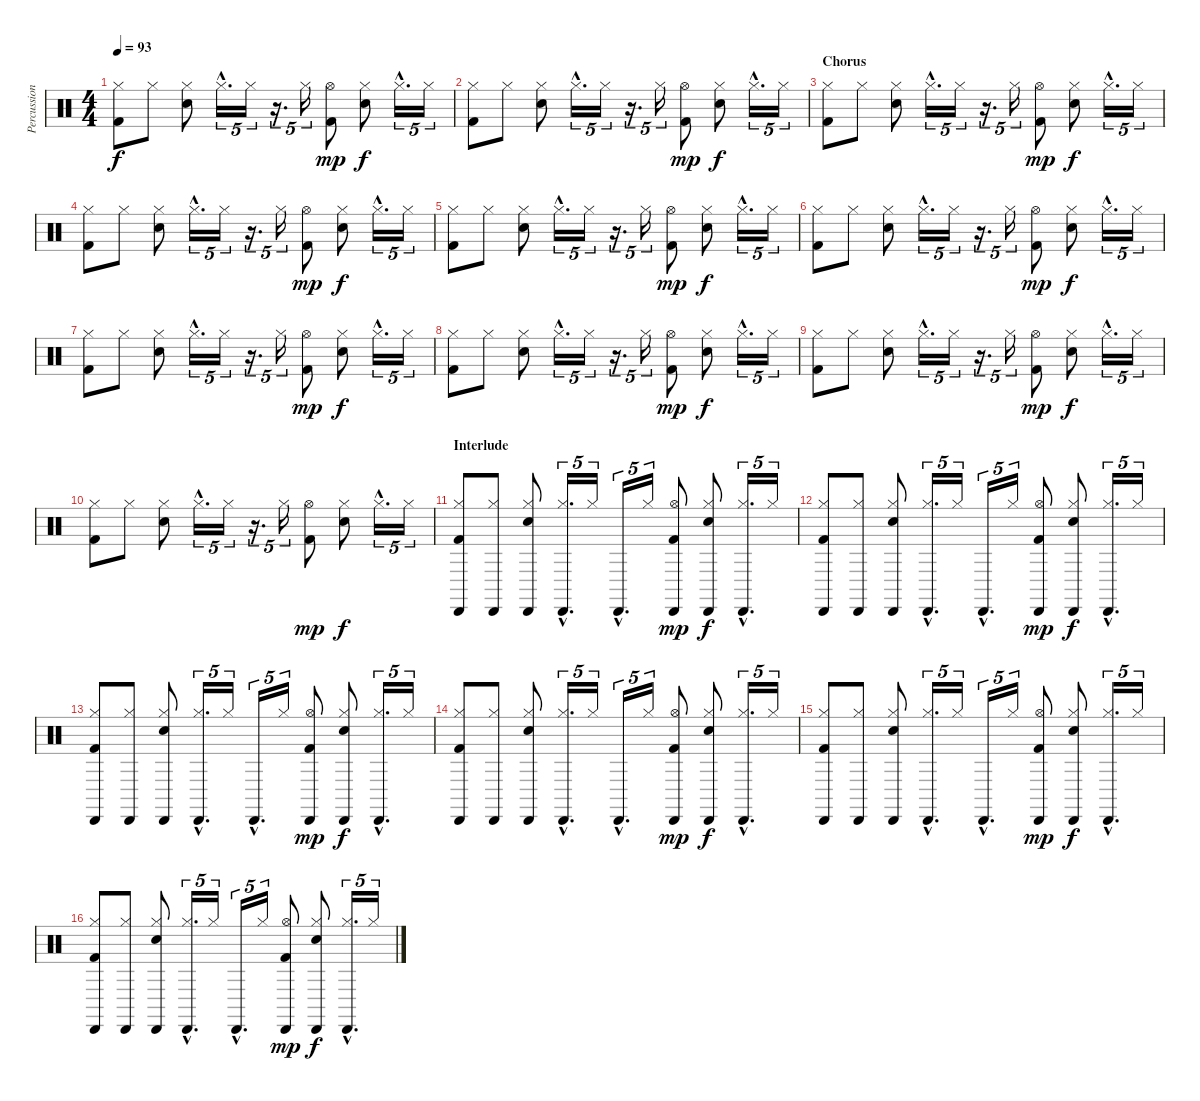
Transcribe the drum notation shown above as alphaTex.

\track ("Percussion" "Percussion") {instrument percussion}
\staff {score}
\articulation defaults
\ts (4 4)
\tempo 93
\clef neutral
\ks c
("Hi-Hat (closed)" "Kick (hit) 2").8{dy f} "Hi-Hat (closed)".8 ("Hi-Hat (closed)" "Snare (hit) 2").8 "Hi-Hat (closed)"{hac}.16{d tu (5 4)} "Hi-Hat (closed)".16{tu (5 4)} r.16{d tu (5 4)} "Hi-Hat (closed)".16{tu (5 4)} ("Hi-Hat (open)" "Kick (hit) 2").8{dy mp} ("Hi-Hat (closed)" "Snare (hit) 2").8{dy f} "Hi-Hat (closed)"{hac}.16{d tu (5 4)} "Hi-Hat (closed)".16{tu (5 4)} |
("Hi-Hat (closed)" "Kick (hit) 2").8 "Hi-Hat (closed)".8 ("Hi-Hat (closed)" "Snare (hit) 2").8 "Hi-Hat (closed)"{hac}.16{d tu (5 4)} "Hi-Hat (closed)".16{tu (5 4)} r.16{d tu (5 4)} "Hi-Hat (closed)".16{tu (5 4)} ("Hi-Hat (open)" "Kick (hit) 2").8{dy mp} ("Hi-Hat (closed)" "Snare (hit) 2").8{dy f} "Hi-Hat (closed)"{hac}.16{d tu (5 4)} "Hi-Hat (closed)".16{tu (5 4)} |
\section ("" "Chorus")
("Hi-Hat (closed)" "Kick (hit) 2").8 "Hi-Hat (closed)".8 ("Hi-Hat (closed)" "Snare (hit) 2").8 "Hi-Hat (closed)"{hac}.16{d tu (5 4)} "Hi-Hat (closed)".16{tu (5 4)} r.16{d tu (5 4)} "Hi-Hat (closed)".16{tu (5 4)} ("Hi-Hat (open)" "Kick (hit) 2").8{dy mp} ("Hi-Hat (closed)" "Snare (hit) 2").8{dy f} "Hi-Hat (closed)"{hac}.16{d tu (5 4)} "Hi-Hat (closed)".16{tu (5 4)} |
("Hi-Hat (closed)" "Kick (hit) 2").8 "Hi-Hat (closed)".8 ("Hi-Hat (closed)" "Snare (hit) 2").8 "Hi-Hat (closed)"{hac}.16{d tu (5 4)} "Hi-Hat (closed)".16{tu (5 4)} r.16{d tu (5 4)} "Hi-Hat (closed)".16{tu (5 4)} ("Hi-Hat (open)" "Kick (hit) 2").8{dy mp} ("Hi-Hat (closed)" "Snare (hit) 2").8{dy f} "Hi-Hat (closed)"{hac}.16{d tu (5 4)} "Hi-Hat (closed)".16{tu (5 4)} |
("Hi-Hat (closed)" "Kick (hit) 2").8 "Hi-Hat (closed)".8 ("Hi-Hat (closed)" "Snare (hit) 2").8 "Hi-Hat (closed)"{hac}.16{d tu (5 4)} "Hi-Hat (closed)".16{tu (5 4)} r.16{d tu (5 4)} "Hi-Hat (closed)".16{tu (5 4)} ("Hi-Hat (open)" "Kick (hit) 2").8{dy mp} ("Hi-Hat (closed)" "Snare (hit) 2").8{dy f} "Hi-Hat (closed)"{hac}.16{d tu (5 4)} "Hi-Hat (closed)".16{tu (5 4)} |
("Hi-Hat (closed)" "Kick (hit) 2").8 "Hi-Hat (closed)".8 ("Hi-Hat (closed)" "Snare (hit) 2").8 "Hi-Hat (closed)"{hac}.16{d tu (5 4)} "Hi-Hat (closed)".16{tu (5 4)} r.16{d tu (5 4)} "Hi-Hat (closed)".16{tu (5 4)} ("Hi-Hat (open)" "Kick (hit) 2").8{dy mp} ("Hi-Hat (closed)" "Snare (hit) 2").8{dy f} "Hi-Hat (closed)"{hac}.16{d tu (5 4)} "Hi-Hat (closed)".16{tu (5 4)} |
("Hi-Hat (closed)" "Kick (hit) 2").8 "Hi-Hat (closed)".8 ("Hi-Hat (closed)" "Snare (hit) 2").8 "Hi-Hat (closed)"{hac}.16{d tu (5 4)} "Hi-Hat (closed)".16{tu (5 4)} r.16{d tu (5 4)} "Hi-Hat (closed)".16{tu (5 4)} ("Hi-Hat (open)" "Kick (hit) 2").8{dy mp} ("Hi-Hat (closed)" "Snare (hit) 2").8{dy f} "Hi-Hat (closed)"{hac}.16{d tu (5 4)} "Hi-Hat (closed)".16{tu (5 4)} |
("Hi-Hat (closed)" "Kick (hit) 2").8 "Hi-Hat (closed)".8 ("Hi-Hat (closed)" "Snare (hit) 2").8 "Hi-Hat (closed)"{hac}.16{d tu (5 4)} "Hi-Hat (closed)".16{tu (5 4)} r.16{d tu (5 4)} "Hi-Hat (closed)".16{tu (5 4)} ("Hi-Hat (open)" "Kick (hit) 2").8{dy mp} ("Hi-Hat (closed)" "Snare (hit) 2").8{dy f} "Hi-Hat (closed)"{hac}.16{d tu (5 4)} "Hi-Hat (closed)".16{tu (5 4)} |
("Hi-Hat (closed)" "Kick (hit) 2").8 "Hi-Hat (closed)".8 ("Hi-Hat (closed)" "Snare (hit) 2").8 "Hi-Hat (closed)"{hac}.16{d tu (5 4)} "Hi-Hat (closed)".16{tu (5 4)} r.16{d tu (5 4)} "Hi-Hat (closed)".16{tu (5 4)} ("Hi-Hat (open)" "Kick (hit) 2").8{dy mp} ("Hi-Hat (closed)" "Snare (hit) 2").8{dy f} "Hi-Hat (closed)"{hac}.16{d tu (5 4)} "Hi-Hat (closed)".16{tu (5 4)} |
("Hi-Hat (closed)" "Kick (hit) 2").8 "Hi-Hat (closed)".8 ("Hi-Hat (closed)" "Snare (hit) 2").8 "Hi-Hat (closed)"{hac}.16{d tu (5 4)} "Hi-Hat (closed)".16{tu (5 4)} r.16{d tu (5 4)} "Hi-Hat (closed)".16{tu (5 4)} ("Hi-Hat (open)" "Kick (hit) 2").8{dy mp} ("Hi-Hat (closed)" "Snare (hit) 2").8{dy f} "Hi-Hat (closed)"{hac}.16{d tu (5 4)} "Hi-Hat (closed)".16{tu (5 4)} |
\section ("" "Interlude")
("Cabasa (hit)" "Hi-Hat (closed)" "Kick (hit) 2").8 ("Cabasa (hit)" "Hi-Hat (closed)").8 ("Cabasa (hit)" "Hi-Hat (closed)" "Snare (hit) 2").8 ("Cabasa (hit)"{hac} "Hi-Hat (closed)"{hac}).16{d tu (5 4)} "Hi-Hat (closed)".16{tu (5 4)} "Cabasa (hit)"{hac}.16{d tu (5 4)} "Hi-Hat (closed)".16{tu (5 4)} ("Cabasa (hit)" "Hi-Hat (open)" "Kick (hit) 2").8{dy mp} ("Cabasa (hit)" "Hi-Hat (closed)" "Snare (hit) 2").8{dy f} ("Cabasa (hit)"{hac} "Hi-Hat (closed)"{hac}).16{d tu (5 4)} "Hi-Hat (closed)".16{tu (5 4)} |
("Cabasa (hit)" "Hi-Hat (closed)" "Kick (hit) 2").8 ("Cabasa (hit)" "Hi-Hat (closed)").8 ("Cabasa (hit)" "Hi-Hat (closed)" "Snare (hit) 2").8 ("Cabasa (hit)"{hac} "Hi-Hat (closed)"{hac}).16{d tu (5 4)} "Hi-Hat (closed)".16{tu (5 4)} "Cabasa (hit)"{hac}.16{d tu (5 4)} "Hi-Hat (closed)".16{tu (5 4)} ("Cabasa (hit)" "Hi-Hat (open)" "Kick (hit) 2").8{dy mp} ("Cabasa (hit)" "Hi-Hat (closed)" "Snare (hit) 2").8{dy f} ("Cabasa (hit)"{hac} "Hi-Hat (closed)"{hac}).16{d tu (5 4)} "Hi-Hat (closed)".16{tu (5 4)} |
("Cabasa (hit)" "Hi-Hat (closed)" "Kick (hit) 2").8 ("Cabasa (hit)" "Hi-Hat (closed)").8 ("Cabasa (hit)" "Hi-Hat (closed)" "Snare (hit) 2").8 ("Cabasa (hit)"{hac} "Hi-Hat (closed)"{hac}).16{d tu (5 4)} "Hi-Hat (closed)".16{tu (5 4)} "Cabasa (hit)"{hac}.16{d tu (5 4)} "Hi-Hat (closed)".16{tu (5 4)} ("Cabasa (hit)" "Hi-Hat (open)" "Kick (hit) 2").8{dy mp} ("Cabasa (hit)" "Hi-Hat (closed)" "Snare (hit) 2").8{dy f} ("Cabasa (hit)"{hac} "Hi-Hat (closed)"{hac}).16{d tu (5 4)} "Hi-Hat (closed)".16{tu (5 4)} |
("Cabasa (hit)" "Hi-Hat (closed)" "Kick (hit) 2").8 ("Cabasa (hit)" "Hi-Hat (closed)").8 ("Cabasa (hit)" "Hi-Hat (closed)" "Snare (hit) 2").8 ("Cabasa (hit)"{hac} "Hi-Hat (closed)"{hac}).16{d tu (5 4)} "Hi-Hat (closed)".16{tu (5 4)} "Cabasa (hit)"{hac}.16{d tu (5 4)} "Hi-Hat (closed)".16{tu (5 4)} ("Cabasa (hit)" "Hi-Hat (open)" "Kick (hit) 2").8{dy mp} ("Cabasa (hit)" "Hi-Hat (closed)" "Snare (hit) 2").8{dy f} ("Cabasa (hit)"{hac} "Hi-Hat (closed)"{hac}).16{d tu (5 4)} "Hi-Hat (closed)".16{tu (5 4)} |
("Cabasa (hit)" "Hi-Hat (closed)" "Kick (hit) 2").8 ("Cabasa (hit)" "Hi-Hat (closed)").8 ("Cabasa (hit)" "Hi-Hat (closed)" "Snare (hit) 2").8 ("Cabasa (hit)"{hac} "Hi-Hat (closed)"{hac}).16{d tu (5 4)} "Hi-Hat (closed)".16{tu (5 4)} "Cabasa (hit)"{hac}.16{d tu (5 4)} "Hi-Hat (closed)".16{tu (5 4)} ("Cabasa (hit)" "Hi-Hat (open)" "Kick (hit) 2").8{dy mp} ("Cabasa (hit)" "Hi-Hat (closed)" "Snare (hit) 2").8{dy f} ("Cabasa (hit)"{hac} "Hi-Hat (closed)"{hac}).16{d tu (5 4)} "Hi-Hat (closed)".16{tu (5 4)} |
("Cabasa (hit)" "Hi-Hat (closed)" "Kick (hit) 2").8 ("Cabasa (hit)" "Hi-Hat (closed)").8 ("Cabasa (hit)" "Hi-Hat (closed)" "Snare (hit) 2").8 ("Cabasa (hit)"{hac} "Hi-Hat (closed)"{hac}).16{d tu (5 4)} "Hi-Hat (closed)".16{tu (5 4)} "Cabasa (hit)"{hac}.16{d tu (5 4)} "Hi-Hat (closed)".16{tu (5 4)} ("Cabasa (hit)" "Hi-Hat (open)" "Kick (hit) 2").8{dy mp} ("Cabasa (hit)" "Hi-Hat (closed)" "Snare (hit) 2").8{dy f} ("Cabasa (hit)"{hac} "Hi-Hat (closed)"{hac}).16{d tu (5 4)} "Hi-Hat (closed)".16{tu (5 4)}
